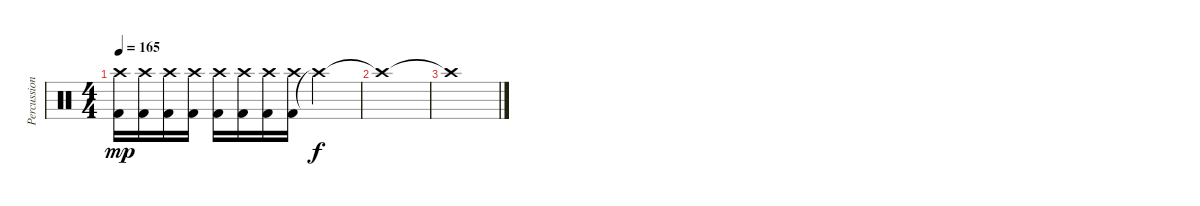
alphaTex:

\track ("Percussion" "Percussion") {instrument percussion}
\staff {score}
\articulation defaults
\ts (4 4)
\tempo 165
\clef neutral
\ks c
("Kick (hit) 2" "Crash high (hit)").16{dy mp} ("Kick (hit) 2" "Crash high (hit)").16 ("Kick (hit) 2" "Crash high (hit)").16 ("Kick (hit) 2" "Crash high (hit)").16 ("Kick (hit) 2" "Crash high (hit)").16 ("Kick (hit) 2" "Crash high (hit)").16 ("Kick (hit) 2" "Crash high (hit)").16 ("Kick (hit) 2" "Crash high (hit)").16 "Crash high (hit)"{t}.2{dy f} |
"Crash high (hit)"{t}.1 |
"Crash high (hit)"{t}.1
